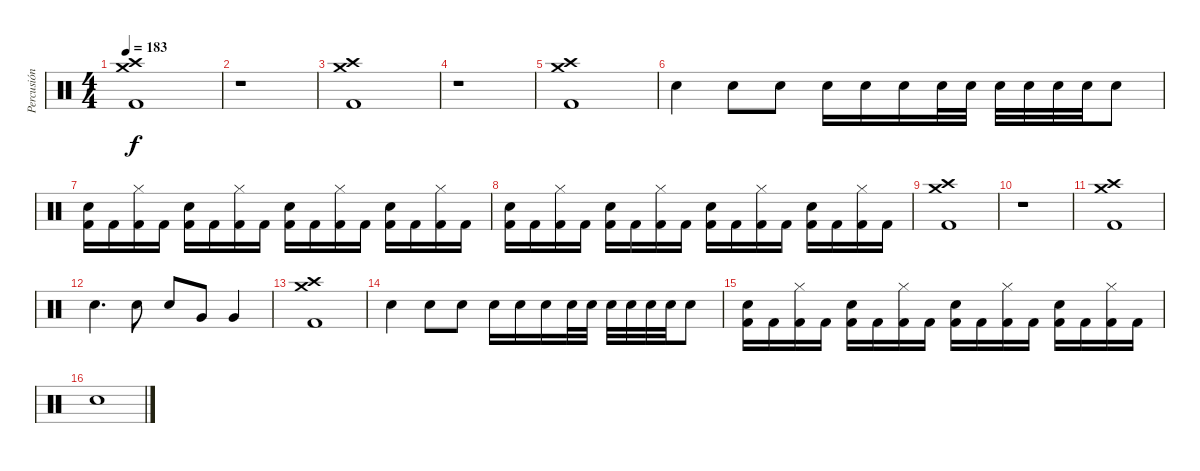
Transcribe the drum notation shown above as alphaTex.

\track ("Percusión" "Percusión") {instrument percussion}
\staff {score}
\articulation defaults
\ts (4 4)
\tempo 183
\clef neutral
\ks c
("Kick (hit) 2" "Crash medium (hit)" "Crash high (hit)").1{dy f} |
r.1 |
("Kick (hit) 2" "Crash medium (hit)" "Crash high (hit)").1 |
r.1 |
("Kick (hit) 2" "Crash medium (hit)" "Crash high (hit)").1 |
"Electric Snare (hit)".4 "Electric Snare (hit)".8 "Electric Snare (hit)".8 "Electric Snare (hit)".16 "Electric Snare (hit)".16 "Electric Snare (hit)".16 "Electric Snare (hit)".32 "Electric Snare (hit)".32 "Electric Snare (hit)".32 "Electric Snare (hit)".32 "Electric Snare (hit)".32 "Electric Snare (hit)".32 "Electric Snare (hit)".8 |
("Kick (hit) 2" "Electric Snare (hit)").16 "Kick (hit) 2".16 ("Kick (hit) 2" "Hi-Hat (closed)").16 "Kick (hit) 2".16 ("Kick (hit) 2" "Electric Snare (hit)").16 "Kick (hit) 2".16 ("Kick (hit) 2" "Hi-Hat (closed)").16 "Kick (hit) 2".16 ("Kick (hit) 2" "Electric Snare (hit)").16 "Kick (hit) 2".16 ("Kick (hit) 2" "Hi-Hat (closed)").16 "Kick (hit) 2".16 ("Kick (hit) 2" "Electric Snare (hit)").16 "Kick (hit) 2".16 ("Kick (hit) 2" "Hi-Hat (closed)").16 "Kick (hit) 2".16 |
("Kick (hit) 2" "Electric Snare (hit)").16 "Kick (hit) 2".16 ("Kick (hit) 2" "Hi-Hat (closed)").16 "Kick (hit) 2".16 ("Kick (hit) 2" "Electric Snare (hit)").16 "Kick (hit) 2".16 ("Kick (hit) 2" "Hi-Hat (closed)").16 "Kick (hit) 2".16 ("Kick (hit) 2" "Electric Snare (hit)").16 "Kick (hit) 2".16 ("Kick (hit) 2" "Hi-Hat (closed)").16 "Kick (hit) 2".16 ("Kick (hit) 2" "Electric Snare (hit)").16 "Kick (hit) 2".16 ("Kick (hit) 2" "Hi-Hat (closed)").16 "Kick (hit) 2".16 |
("Kick (hit) 2" "Crash medium (hit)" "Crash high (hit)").1 |
r.1 |
("Kick (hit) 2" "Crash medium (hit)" "Crash high (hit)").1 |
"Electric Snare (hit)".4{d} "Electric Snare (hit)".8 "Electric Snare (hit)".8 "Very Low Tom (hit)".8 "Very Low Tom (hit)".4 |
("Kick (hit) 2" "Crash medium (hit)" "Crash high (hit)").1 |
"Electric Snare (hit)".4 "Electric Snare (hit)".8 "Electric Snare (hit)".8 "Electric Snare (hit)".16 "Electric Snare (hit)".16 "Electric Snare (hit)".16 "Electric Snare (hit)".32 "Electric Snare (hit)".32 "Electric Snare (hit)".32 "Electric Snare (hit)".32 "Electric Snare (hit)".32 "Electric Snare (hit)".32 "Electric Snare (hit)".8 |
("Kick (hit) 2" "Electric Snare (hit)").16 "Kick (hit) 2".16 ("Kick (hit) 2" "Hi-Hat (closed)").16 "Kick (hit) 2".16 ("Kick (hit) 2" "Electric Snare (hit)").16 "Kick (hit) 2".16 ("Kick (hit) 2" "Hi-Hat (closed)").16 "Kick (hit) 2".16 ("Kick (hit) 2" "Electric Snare (hit)").16 "Kick (hit) 2".16 ("Kick (hit) 2" "Hi-Hat (closed)").16 "Kick (hit) 2".16 ("Kick (hit) 2" "Electric Snare (hit)").16 "Kick (hit) 2".16 ("Kick (hit) 2" "Hi-Hat (closed)").16 "Kick (hit) 2".16 |
"Electric Snare (hit)".1
